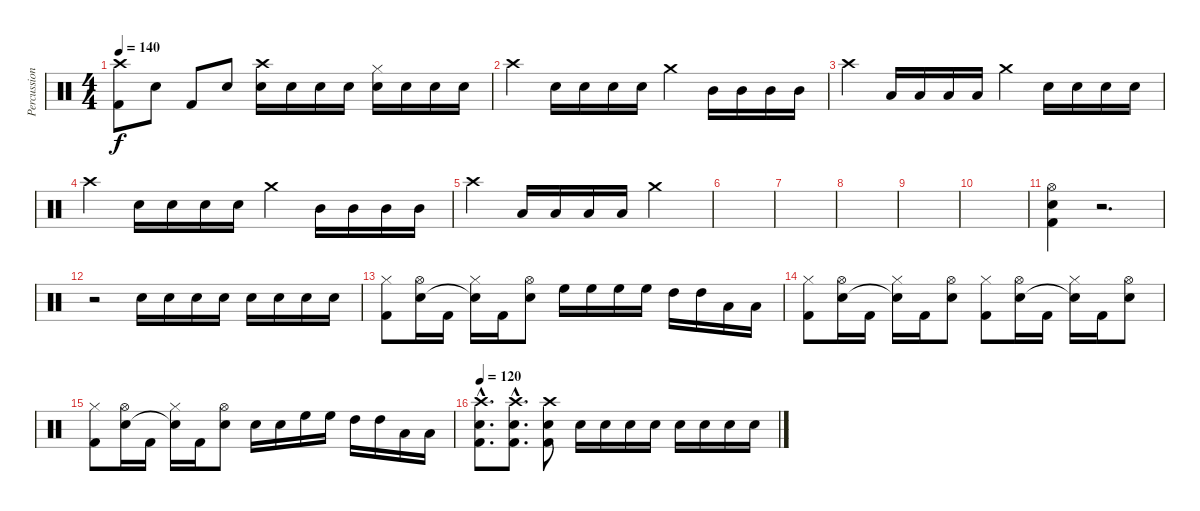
\track ("Percussion" "Percussion") {instrument percussion}
\staff {score}
\articulation defaults
\ts (4 4)
\tempo 140
\clef neutral
\ks c
("Crash high (hit)" "Kick (hit) 2"{t}).8{dy f} "Snare (hit) 2".8 "Kick (hit) 2".8 "Snare (hit) 2".8 ("Crash high (hit)" "Snare (hit) 2").16 "Snare (hit) 2".16 "Snare (hit) 2".16 "Snare (hit) 2".16 ("Hi-Hat (closed)" "Snare (hit) 2").16 "Snare (hit) 2".16 "Snare (hit) 2".16 "Snare (hit) 2".16 |
"Crash high (hit)".4 "Snare (hit) 2".16 "Snare (hit) 2".16 "Snare (hit) 2".16 "Snare (hit) 2".16 "Crash medium (hit)".4 "Mid Tom (hit)".16 "Mid Tom (hit)".16 "Mid Tom (hit)".16 "Mid Tom (hit)".16 |
"Crash high (hit)".4 "Low Tom (hit)".16 "Low Tom (hit)".16 "Low Tom (hit)".16 "Low Tom (hit)".16 "Crash medium (hit)".4 "Snare (hit) 2".16 "Snare (hit) 2".16 "Snare (hit) 2".16 "Snare (hit) 2".16 |
"Crash high (hit)".4 "Snare (hit) 2".16 "Snare (hit) 2".16 "Snare (hit) 2".16 "Snare (hit) 2".16 "Crash medium (hit)".4 "Mid Tom (hit)".16 "Mid Tom (hit)".16 "Mid Tom (hit)".16 "Mid Tom (hit)".16 |
"Crash high (hit)".4 "Low Tom (hit)".16 "Low Tom (hit)".16 "Low Tom (hit)".16 "Low Tom (hit)".16 "Crash medium (hit)".2 |
|
|
|
|
|
("Snare (hit) 2" "Hi-Hat (open)" "Kick (hit) 2").4 r.2{d} |
r.2 "Snare (hit) 2".16 "Snare (hit) 2".16 "Snare (hit) 2".16 "Snare (hit) 2".16 "Snare (hit) 2".16 "Snare (hit) 2".16 "Snare (hit) 2".16 "Snare (hit) 2".16 |
("Hi-Hat (closed)" "Kick (hit) 2").8 ("Hi-Hat (open)" "Snare (hit) 2").16 "Kick (hit) 2".16 ("Hi-Hat (closed)" "Snare (hit)"{t}).16 "Kick (hit) 2".16 ("Hi-Hat (open)" "Snare (hit) 2").8 "High Floor Tom (hit)".16 "High Floor Tom (hit)".16 "High Floor Tom (hit)".16 "High Floor Tom (hit)".16 "High Tom (hit)".16 "High Tom (hit)".16 "Low Tom (hit)".16 "Low Tom (hit)".16 |
("Hi-Hat (closed)" "Kick (hit) 2").8 ("Hi-Hat (open)" "Snare (hit) 2").16 "Kick (hit) 2".16 ("Hi-Hat (closed)" "Snare (hit)"{t}).16 "Kick (hit) 2".16 ("Hi-Hat (open)" "Snare (hit) 2").8 ("Hi-Hat (closed)" "Kick (hit) 2").8 ("Hi-Hat (open)" "Snare (hit) 2").16 "Kick (hit) 2".16 ("Hi-Hat (closed)" "Snare (hit)"{t}).16 "Kick (hit) 2".16 ("Hi-Hat (open)" "Snare (hit) 2").8 |
("Hi-Hat (closed)" "Kick (hit) 2").8 ("Hi-Hat (open)" "Snare (hit) 2").16 "Kick (hit) 2".16 ("Hi-Hat (closed)" "Snare (hit)"{t}).16 "Kick (hit) 2".16 ("Hi-Hat (open)" "Snare (hit) 2").8 "Snare (hit) 2".16 "Snare (hit) 2".16 "High Floor Tom (hit)".16 "High Floor Tom (hit)".16 "High Tom (hit)".16 "High Tom (hit)".16 "Low Tom (hit)".16 "Low Tom (hit)".16 |
\tempo 120
("Crash high (hit)"{hac} "Snare (hit) 2"{hac} "Kick (hit) 2"{hac}).8{d} ("Crash high (hit)"{hac} "Snare (hit) 2"{hac} "Kick (hit) 2"{hac}).8{d} ("Crash high (hit)" "Snare (hit) 2" "Kick (hit) 2").8 "Snare (hit) 2".16 "Snare (hit) 2".16 "Snare (hit) 2".16 "Snare (hit) 2".16 "Snare (hit) 2".16 "Snare (hit) 2".16 "Snare (hit) 2".16 "Snare (hit) 2".16
